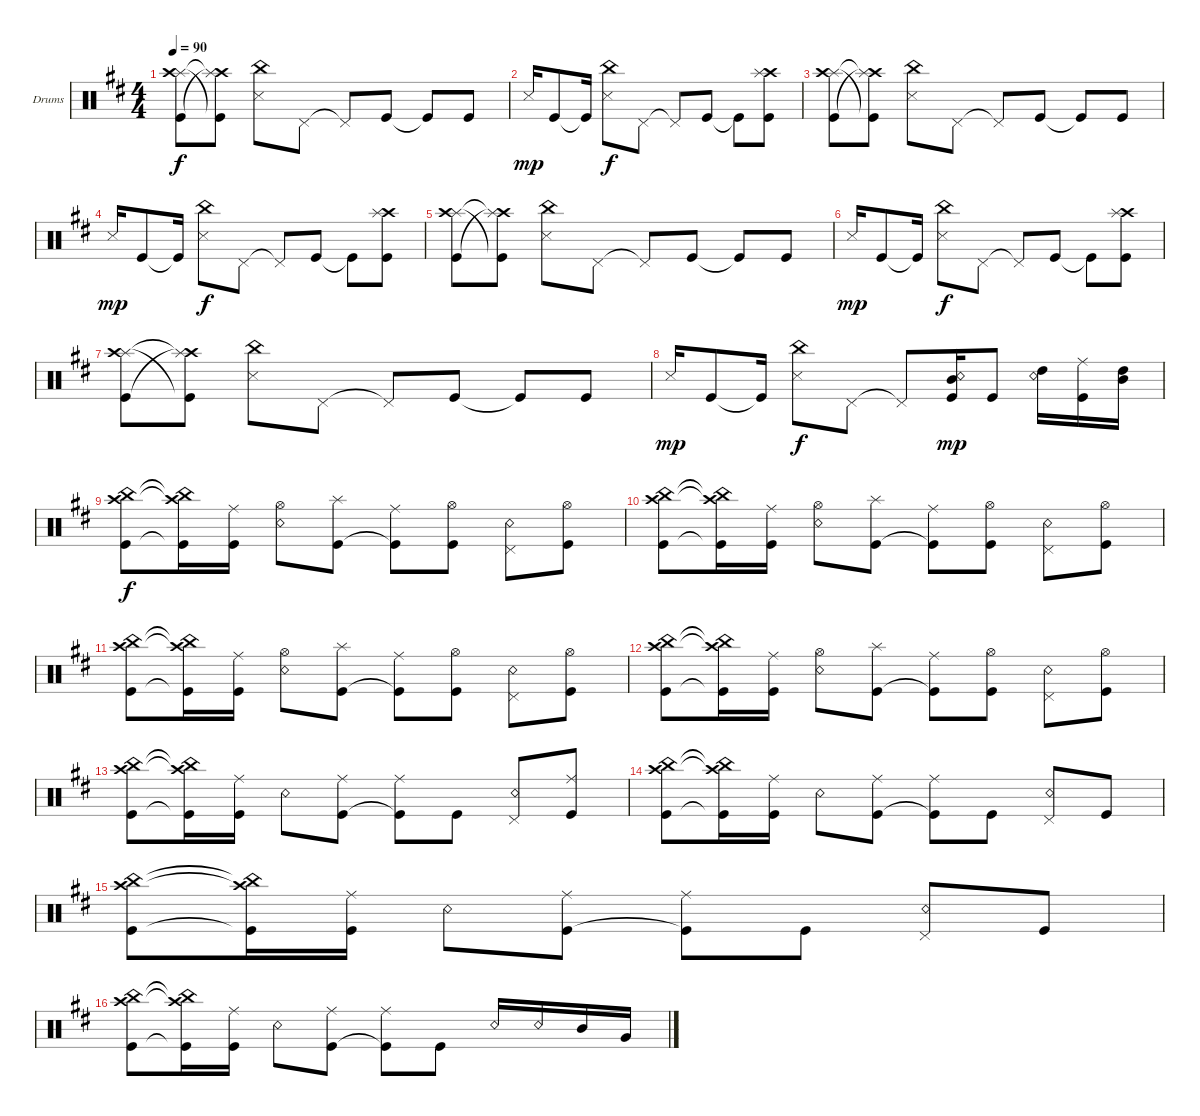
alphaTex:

\defaultSystemsLayout 4
\bracketExtendMode groupsimilarinstruments
\firstSystemTrackNameOrientation horizontal
\otherSystemsTrackNameOrientation horizontal
\track ("Bateria" "Drums") {multiBarRest instrument percussion}
\staff {score}
\articulation defaults
\ts (4 4)
\tempo 90
\clef neutral
\ks d
("Splash (hit)" "Crash high (hit)" "Kick (hit)").8{dy f} ("Kick (hit)"{t} "Crash high (hit)"{t} "Splash (hit)"{t}).8 ("China (hit)" "Snare (side stick) 3").8 "Pedal Hi-Hat (hit)".8 "Pedal Hi-Hat (hit)"{t}.8 "Kick (hit)".8 "Kick (hit)"{t}.8 "Kick (hit)".8 |
"Snare (side stick) 3".16{dy mp} "Kick (hit)".8 "Kick (hit)"{t}.16 ("China (hit)" "Snare (side stick) 3").8{dy f} "Pedal Hi-Hat (hit)".8 "Pedal Hi-Hat (hit)"{t}.8 "Kick (hit)".8 "Kick (hit)"{t}.8 ("Kick (hit)" "Crash high (hit)" "Splash (hit)").8 |
("Splash (hit)" "Crash high (hit)" "Kick (hit)").8 ("Kick (hit)"{t} "Crash high (hit)"{t} "Splash (hit)"{t}).8 ("China (hit)" "Snare (side stick) 3").8 "Pedal Hi-Hat (hit)".8 "Pedal Hi-Hat (hit)"{t}.8 "Kick (hit)".8 "Kick (hit)"{t}.8 "Kick (hit)".8 |
"Snare (side stick) 3".16{dy mp} "Kick (hit)".8 "Kick (hit)"{t}.16 ("China (hit)" "Snare (side stick) 3").8{dy f} "Pedal Hi-Hat (hit)".8 "Pedal Hi-Hat (hit)"{t}.8 "Kick (hit)".8 "Kick (hit)"{t}.8 ("Kick (hit)" "Crash high (hit)" "Splash (hit)").8 |
("Splash (hit)" "Crash high (hit)" "Kick (hit)").8 ("Kick (hit)"{t} "Crash high (hit)"{t} "Splash (hit)"{t}).8 ("China (hit)" "Snare (side stick) 3").8 "Pedal Hi-Hat (hit)".8 "Pedal Hi-Hat (hit)"{t}.8 "Kick (hit)".8 "Kick (hit)"{t}.8 "Kick (hit)".8 |
"Snare (side stick) 3".16{dy mp} "Kick (hit)".8 "Kick (hit)"{t}.16 ("China (hit)" "Snare (side stick) 3").8{dy f} "Pedal Hi-Hat (hit)".8 "Pedal Hi-Hat (hit)"{t}.8 "Kick (hit)".8 "Kick (hit)"{t}.8 ("Kick (hit)" "Crash high (hit)" "Splash (hit)").8 |
("Splash (hit)" "Crash high (hit)" "Kick (hit)").8 ("Kick (hit)"{t} "Crash high (hit)"{t} "Splash (hit)"{t}).8 ("China (hit)" "Snare (side stick) 3").8 "Pedal Hi-Hat (hit)".8 "Pedal Hi-Hat (hit)"{t}.8 "Kick (hit)".8 "Kick (hit)"{t}.8 "Kick (hit)".8 |
"Snare (side stick) 3".16{dy mp} "Kick (hit)".8 "Kick (hit)"{t}.16 ("China (hit)" "Snare (side stick) 3").8{dy f} "Pedal Hi-Hat (hit)".8 "Pedal Hi-Hat (hit)"{t}.8 ("Snare (rim shot)" "Mid Tom (hit)" "Kick (hit)").16{dy mp} "Kick (hit)".8 ("High Tom (hit)" "Snare (rim shot)").16 ("Kick (hit)" "Ride (middle)").16 ("Mid Tom (hit)" "High Tom (hit)").16 |
("Kick (hit)" "China (hit)" "Crash high (hit)").8{dy f} ("Kick (hit)"{t} "China (hit)"{t} "Crash high (hit)"{t}).16 ("Kick (hit)" "Ride (middle)").16 ("Snare (rim shot)" "Hi-Hat (open)").8 ("Kick (hit)" "Splash (hit)").8 ("Kick (hit)"{t} "Ride (middle)").8 ("Kick (hit)" "Hi-Hat (open)").8 ("Snare (rim shot)" "Pedal Hi-Hat (hit)").8 ("Kick (hit)" "Hi-Hat (open)").8 |
("Kick (hit)" "China (hit)" "Crash high (hit)").8 ("Kick (hit)"{t} "China (hit)"{t} "Crash high (hit)"{t}).16 ("Kick (hit)" "Ride (middle)").16 ("Snare (rim shot)" "Hi-Hat (open)").8 ("Kick (hit)" "Splash (hit)").8 ("Kick (hit)"{t} "Ride (middle)").8 ("Kick (hit)" "Hi-Hat (open)").8 ("Snare (rim shot)" "Pedal Hi-Hat (hit)").8 ("Kick (hit)" "Hi-Hat (open)").8 |
("Kick (hit)" "China (hit)" "Crash high (hit)").8 ("Kick (hit)"{t} "China (hit)"{t} "Crash high (hit)"{t}).16 ("Kick (hit)" "Ride (middle)").16 ("Snare (rim shot)" "Hi-Hat (open)").8 ("Kick (hit)" "Splash (hit)").8 ("Kick (hit)"{t} "Ride (middle)").8 ("Kick (hit)" "Hi-Hat (open)").8 ("Snare (rim shot)" "Pedal Hi-Hat (hit)").8 ("Kick (hit)" "Hi-Hat (open)").8 |
("Kick (hit)" "China (hit)" "Crash high (hit)").8 ("Kick (hit)"{t} "China (hit)"{t} "Crash high (hit)"{t}).16 ("Kick (hit)" "Ride (middle)").16 ("Snare (rim shot)" "Hi-Hat (open)").8 ("Kick (hit)" "Splash (hit)").8 ("Kick (hit)"{t} "Ride (middle)").8 ("Kick (hit)" "Hi-Hat (open)").8 ("Snare (rim shot)" "Pedal Hi-Hat (hit)").8 ("Kick (hit)" "Hi-Hat (open)").8 |
("Kick (hit)" "China (hit)" "Crash high (hit)").8 ("Kick (hit)"{t} "China (hit)"{t} "Crash high (hit)"{t}).16 ("Kick (hit)" "Ride (middle)").16 "Snare (rim shot)".8 ("Kick (hit)" "Ride (middle)").8 ("Kick (hit)"{t} "Ride (middle)").8 "Kick (hit)".8 ("Snare (rim shot)" "Pedal Hi-Hat (hit)").8 ("Kick (hit)" "Ride (middle)").8 |
("Kick (hit)" "China (hit)" "Crash high (hit)").8 ("Kick (hit)"{t} "China (hit)"{t} "Crash high (hit)"{t}).16 ("Kick (hit)" "Ride (middle)").16 "Snare (rim shot)".8 ("Kick (hit)" "Ride (middle)").8 ("Kick (hit)"{t} "Ride (middle)").8 "Kick (hit)".8 ("Snare (rim shot)" "Pedal Hi-Hat (hit)").8 "Kick (hit)".8 |
("Kick (hit)" "China (hit)" "Crash high (hit)").8 ("Kick (hit)"{t} "China (hit)"{t} "Crash high (hit)"{t}).16 ("Kick (hit)" "Ride (middle)").16 "Snare (rim shot)".8 ("Kick (hit)" "Ride (middle)").8 ("Kick (hit)"{t} "Ride (middle)").8 "Kick (hit)".8 ("Snare (rim shot)" "Pedal Hi-Hat (hit)").8 "Kick (hit)".8 |
("Kick (hit)" "China (hit)" "Crash high (hit)").8 ("Kick (hit)"{t} "China (hit)"{t} "Crash high (hit)"{t}).16 ("Kick (hit)" "Ride (middle)").16 "Snare (rim shot)".8 ("Kick (hit)" "Ride (middle)").8 ("Kick (hit)"{t} "Ride (middle)").8 "Kick (hit)".8 "Snare (rim shot)".16 "Snare (rim shot)".16 "Mid Tom (hit)".16 "Very Low Tom (hit)".16
